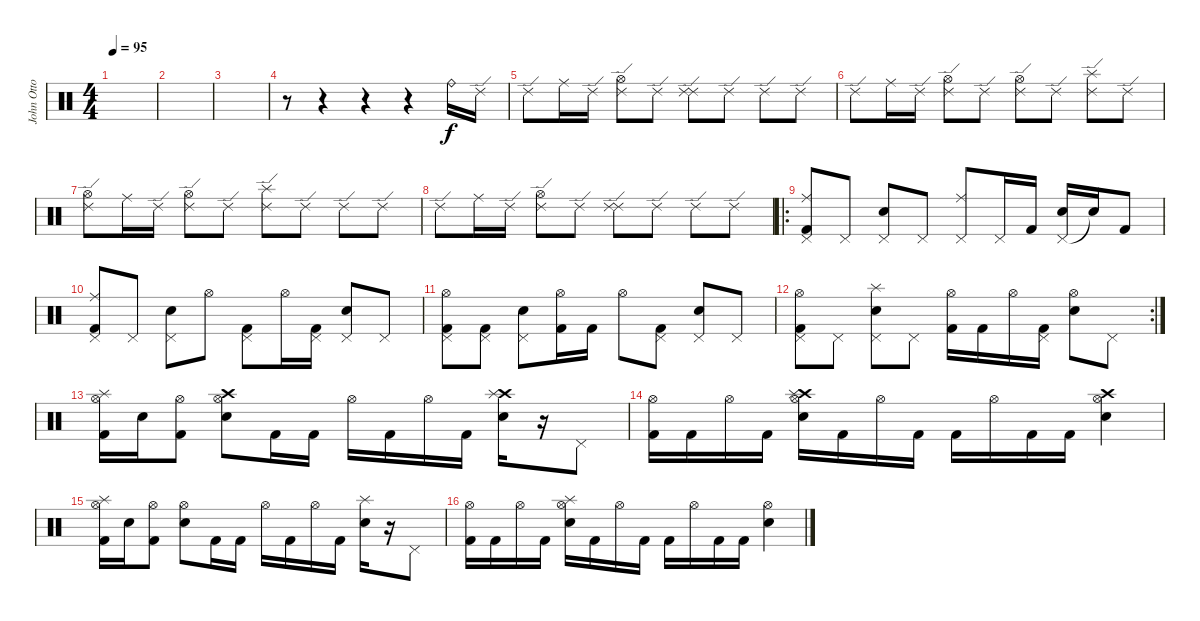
\track ("John Otto (Drums)" "John Otto ") {instrument percussion}
\staff {score}
\articulation defaults
\ts (4 4)
\tempo 95
\clef neutral
\ks c
|
|
|
r.8 r.4 r.4 r.4 "Ride (bell)".16 "Ride (edge) 2".16 |
"Ride (edge) 2".8 "Ride (middle)".16 "Ride (edge) 2".16 ("Hi-Hat (open)" "Ride (edge) 2").8 "Ride (edge) 2".8 ("Ride (edge) 2" "Ride (edge) 2").8 "Ride (edge) 2".8 "Ride (edge) 2".8 "Ride (edge) 2".8 |
"Ride (edge) 2".8 "Ride (middle)".16 "Ride (edge) 2".16 ("Hi-Hat (open)" "Ride (edge) 2").8 "Ride (edge) 2".8 ("Hi-Hat (open)" "Ride (edge) 2").8 "Ride (edge) 2".8 ("Splash (hit)" "Ride (edge) 2").8 "Ride (edge) 2".8 |
("Hi-Hat (open)" "Ride (edge) 2").8 "Ride (middle)".16 "Ride (edge) 2".16 ("Hi-Hat (open)" "Ride (edge) 2").8 "Ride (edge) 2".8 ("Splash (hit)" "Ride (edge) 2").8 "Ride (edge) 2".8 "Ride (edge) 2".8 "Ride (edge) 2".8 |
"Ride (edge) 2".8 "Ride (middle)".16 "Ride (edge) 2".16 ("Hi-Hat (open)" "Ride (edge) 2").8 "Ride (edge) 2".8 ("Ride (edge) 2" "Ride (edge) 2").8 "Ride (edge) 2".8 "Ride (edge) 2".8 "Ride (edge) 2".8 |
\ro
("Ride (middle)" "Pedal Hi-Hat (hit)" "Kick (hit) 2").8 "Pedal Hi-Hat (hit)".8 ("Pedal Hi-Hat (hit)" "Electric Snare (hit)").8 "Pedal Hi-Hat (hit)".8 ("Pedal Hi-Hat (hit)" "Ride (middle)").8 "Pedal Hi-Hat (hit)".16 "Kick (hit) 2".16 ("Pedal Hi-Hat (hit)" "Electric Snare (hit)").16 "Snare (hit)"{t}.16 "Kick (hit) 2".8 |
("Ride (middle)" "Pedal Hi-Hat (hit)" "Kick (hit) 2").8 "Pedal Hi-Hat (hit)".8 ("Pedal Hi-Hat (hit)" "Electric Snare (hit)").8 "Hi-Hat (open)".8 ("Pedal Hi-Hat (hit)" "Kick (hit) 2").8 "Hi-Hat (open)".16 ("Pedal Hi-Hat (hit)" "Kick (hit) 2").16 ("Pedal Hi-Hat (hit)" "Electric Snare (hit)").8 "Pedal Hi-Hat (hit)".8 |
("Hi-Hat (open)" "Pedal Hi-Hat (hit)" "Kick (hit) 2").8 ("Pedal Hi-Hat (hit)" "Kick (hit) 2").8 ("Pedal Hi-Hat (hit)" "Electric Snare (hit)").8 ("Hi-Hat (open)" "Kick (hit) 2").16 "Kick (hit) 2".16 "Hi-Hat (open)".8 ("Pedal Hi-Hat (hit)" "Kick (hit) 2").8 ("Pedal Hi-Hat (hit)" "Electric Snare (hit)").8 "Pedal Hi-Hat (hit)".8 |
\rc 2
("Hi-Hat (open)" "Pedal Hi-Hat (hit)" "Kick (hit) 2").8 "Pedal Hi-Hat (hit)".8 ("Splash (hit)" "Pedal Hi-Hat (hit)" "Electric Snare (hit)").8 "Pedal Hi-Hat (hit)".8 ("Hi-Hat (open)" "Kick (hit) 2").16 "Kick (hit) 2".16 "Hi-Hat (open)".16 ("Pedal Hi-Hat (hit)" "Kick (hit) 2").16 ("Hi-Hat (open)" "Electric Snare (hit)").8 "Pedal Hi-Hat (hit)".8 |
("Splash (hit)" "Hi-Hat (open)" "Kick (hit) 2").16 "Electric Snare (hit)".16 ("Hi-Hat (open)" "Kick (hit) 2").8 ("Crash high (hit)" "Hi-Hat (open)" "Electric Snare (hit)").8 "Kick (hit) 2".16 "Kick (hit) 2".16 "Hi-Hat (open)".16 "Kick (hit) 2".16 "Hi-Hat (open)".16 "Kick (hit) 2".16 ("Crash high (hit)" "Splash (hit)" "Electric Snare (hit)").16 r.16 "Pedal Hi-Hat (hit)".8 |
("Hi-Hat (open)" "Kick (hit) 2").16 "Kick (hit) 2".16 "Hi-Hat (open)".16 "Kick (hit) 2".16 ("Crash high (hit)" "Splash (hit)" "Hi-Hat (open)" "Electric Snare (hit)").16 "Kick (hit) 2".16 "Hi-Hat (open)".16 "Kick (hit) 2".16 "Kick (hit) 2".16 "Hi-Hat (open)".16 "Kick (hit) 2".16 "Kick (hit) 2".16 ("Crash high (hit)" "Hi-Hat (open)" "Electric Snare (hit)").4 |
("Splash (hit)" "Hi-Hat (open)" "Kick (hit) 2").16 "Electric Snare (hit)".16 ("Hi-Hat (open)" "Kick (hit) 2").8 ("Hi-Hat (open)" "Electric Snare (hit)").8 "Kick (hit) 2".16 "Kick (hit) 2".16 "Hi-Hat (open)".16 "Kick (hit) 2".16 "Hi-Hat (open)".16 "Kick (hit) 2".16 ("Splash (hit)" "Electric Snare (hit)").16 r.16 "Pedal Hi-Hat (hit)".8 |
("Hi-Hat (open)" "Kick (hit) 2").16 "Kick (hit) 2".16 "Hi-Hat (open)".16 "Kick (hit) 2".16 ("Splash (hit)" "Hi-Hat (open)" "Electric Snare (hit)").16 "Kick (hit) 2".16 "Hi-Hat (open)".16 "Kick (hit) 2".16 "Kick (hit) 2".16 "Hi-Hat (open)".16 "Kick (hit) 2".16 "Kick (hit) 2".16 ("Hi-Hat (open)" "Electric Snare (hit)").4
